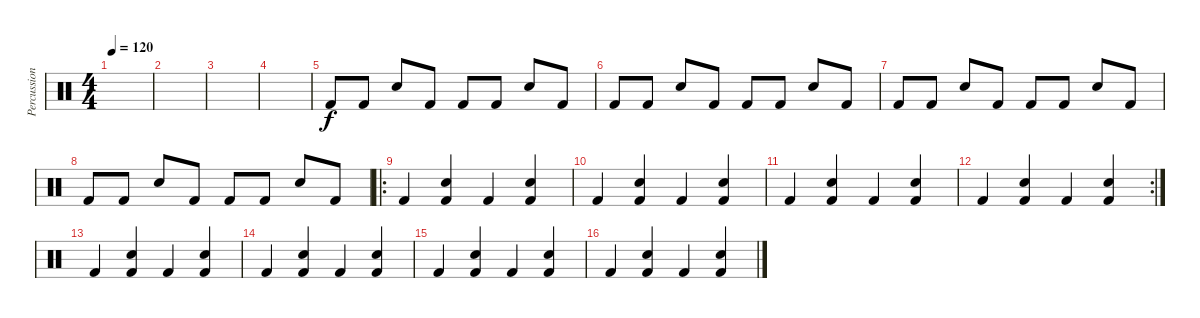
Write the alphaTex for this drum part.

\track ("Percussion" "Percussion") {instrument percussion}
\staff {score}
\articulation defaults
\ts (4 4)
\tempo 120
\clef neutral
\ks c
|
|
|
|
"Kick (hit) 2".8 "Kick (hit) 2".8 "Electric Snare (hit)".8 "Kick (hit) 2".8 "Kick (hit) 2".8 "Kick (hit) 2".8 "Electric Snare (hit)".8 "Kick (hit) 2".8 |
"Kick (hit) 2".8 "Kick (hit) 2".8 "Electric Snare (hit)".8 "Kick (hit) 2".8 "Kick (hit) 2".8 "Kick (hit) 2".8 "Electric Snare (hit)".8 "Kick (hit) 2".8 |
"Kick (hit) 2".8 "Kick (hit) 2".8 "Electric Snare (hit)".8 "Kick (hit) 2".8 "Kick (hit) 2".8 "Kick (hit) 2".8 "Electric Snare (hit)".8 "Kick (hit) 2".8 |
"Kick (hit) 2".8 "Kick (hit) 2".8 "Electric Snare (hit)".8 "Kick (hit) 2".8 "Kick (hit) 2".8 "Kick (hit) 2".8 "Electric Snare (hit)".8 "Kick (hit) 2".8 |
\ro "Kick (hit) 2".4
("Electric Snare (hit)" "Kick (hit) 2").4 "Kick (hit) 2".4 ("Electric Snare (hit)" "Kick (hit) 2").4 |
"Kick (hit) 2".4 ("Electric Snare (hit)" "Kick (hit) 2").4 "Kick (hit) 2".4 ("Electric Snare (hit)" "Kick (hit) 2").4 |
"Kick (hit) 2".4 ("Electric Snare (hit)" "Kick (hit) 2").4 "Kick (hit) 2".4 ("Electric Snare (hit)" "Kick (hit) 2").4 |
\rc 2 "Kick (hit) 2".4
("Electric Snare (hit)" "Kick (hit) 2").4 "Kick (hit) 2".4 ("Electric Snare (hit)" "Kick (hit) 2").4 |
"Kick (hit) 2".4 ("Electric Snare (hit)" "Kick (hit) 2").4 "Kick (hit) 2".4 ("Electric Snare (hit)" "Kick (hit) 2").4 |
"Kick (hit) 2".4 ("Electric Snare (hit)" "Kick (hit) 2").4 "Kick (hit) 2".4 ("Electric Snare (hit)" "Kick (hit) 2").4 |
"Kick (hit) 2".4 ("Electric Snare (hit)" "Kick (hit) 2").4 "Kick (hit) 2".4 ("Electric Snare (hit)" "Kick (hit) 2").4 |
"Kick (hit) 2".4 ("Electric Snare (hit)" "Kick (hit) 2").4 "Kick (hit) 2".4 ("Electric Snare (hit)" "Kick (hit) 2").4
